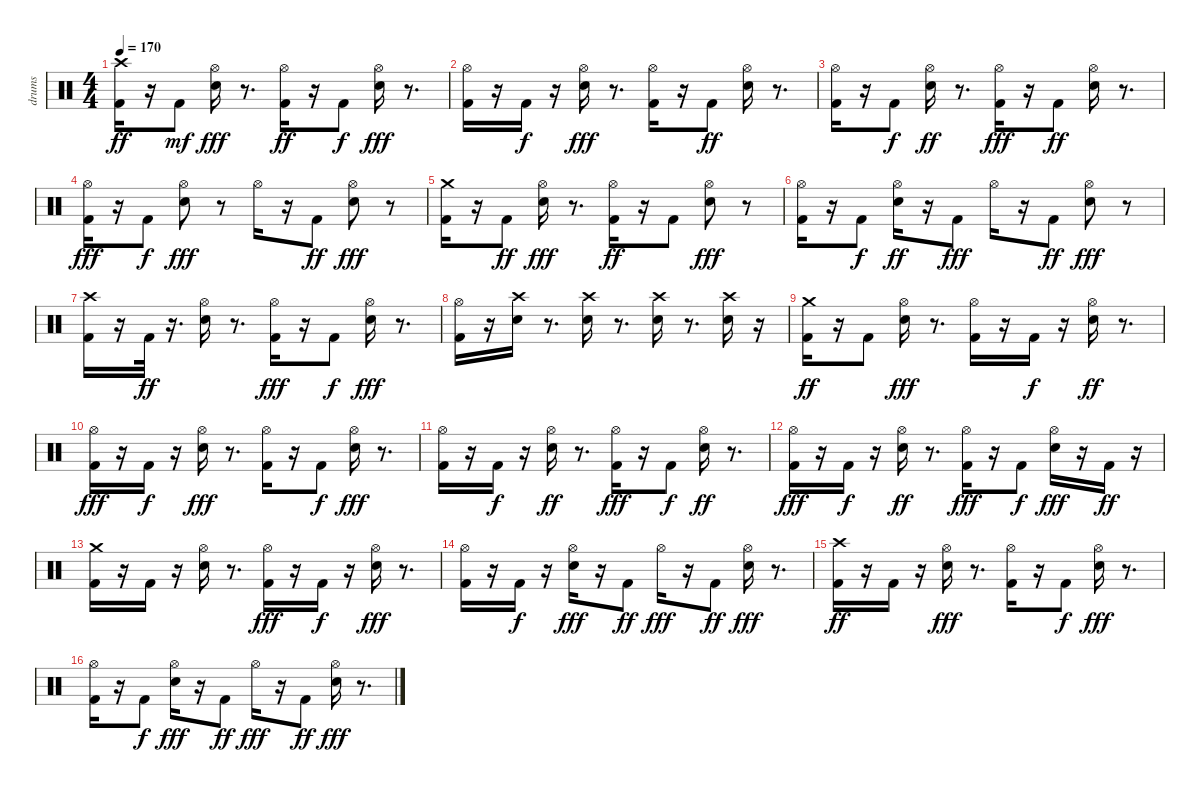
\track ("drums" "drums") {instrument percussion}
\staff {score}
\articulation defaults
\ts (4 4)
\tempo 170
\clef neutral
\ks c
("Crash high (hit)" "Kick (hit) 2").16{dy ff volume 16} r.16 "Kick (hit) 2".8{dy mf} ("Snare (hit) 2" "Hi-Hat (open)").16{dy fff} r.8{d} ("Hi-Hat (open)" "Kick (hit) 2").16{dy ff} r.16 "Kick (hit) 2".8{dy f} ("Snare (hit) 2" "Hi-Hat (open)").16{dy fff} r.8{d} |
("Kick (hit) 2" "Hi-Hat (open)").16 r.16 "Kick (hit) 2".16{dy f} r.16 ("Snare (hit) 2" "Hi-Hat (open)").16{dy fff} r.8{d} ("Kick (hit) 2" "Hi-Hat (open)").16 r.16 "Kick (hit) 2".8{dy ff} ("Hi-Hat (open)" "Snare (hit) 2").16 r.8{d} |
("Hi-Hat (open)" "Kick (hit) 2").16 r.16 "Kick (hit) 2".8{dy f} ("Hi-Hat (open)" "Snare (hit) 2").16{dy ff} r.8{d} ("Kick (hit) 2" "Hi-Hat (open)").16{dy fff} r.16 "Kick (hit) 2".8{dy ff} ("Hi-Hat (open)" "Snare (hit) 2").16 r.8{d} |
("Kick (hit) 2" "Hi-Hat (open)").16{dy fff} r.16 "Kick (hit) 2".8{dy f} ("Snare (hit) 2" "Hi-Hat (open)").8{dy fff} r.8 "Hi-Hat (open)".16 r.16 "Kick (hit) 2".8{dy ff} ("Hi-Hat (open)" "Snare (hit) 2").8{dy fff} r.8 |
("Crash medium (hit)" "Kick (hit) 2").16 r.16 "Kick (hit) 2".8{dy ff} ("Snare (hit) 2" "Hi-Hat (open)").16{dy fff} r.8{d} ("Hi-Hat (open)" "Kick (hit) 2").16{dy ff} r.16 "Kick (hit) 2".8 ("Snare (hit) 2" "Hi-Hat (open)").8{dy fff} r.8 |
("Kick (hit) 2" "Hi-Hat (open)").16 r.16 "Kick (hit) 2".8{dy f} ("Hi-Hat (open)" "Snare (hit) 2").16{dy ff} r.16 "Kick (hit) 2".8{dy fff} "Hi-Hat (open)".16 r.16 "Kick (hit) 2".8{dy ff} ("Snare (hit) 2" "Hi-Hat (open)").8{dy fff} r.8 |
("Crash high (hit)" "Kick (hit) 2").16 r.16 "Kick (hit) 2".32{dy ff} r.16{d} ("Hi-Hat (open)" "Snare (hit) 2").16 r.8{d} ("Kick (hit) 2" "Hi-Hat (open)").16{dy fff} r.16 "Kick (hit) 2".8{dy f} ("Snare (hit) 2" "Hi-Hat (open)").16{dy fff} r.8{d} |
("Kick (hit) 2" "Hi-Hat (open)").16 r.16 ("Snare (hit) 2" "Crash high (hit)").16 r.8{d} ("Snare (hit) 2" "Crash high (hit)").16 r.8{d} ("Crash high (hit)" "Snare (hit) 2").16 r.8{d} ("Crash high (hit)" "Snare (hit) 2").16 r.16 |
("Kick (hit) 2" "Crash medium (hit)").16{dy ff} r.16 "Kick (hit) 2".8 ("Hi-Hat (open)" "Snare (hit) 2").16{dy fff} r.8{d} ("Kick (hit) 2" "Hi-Hat (open)").16 r.16 "Kick (hit) 2".16{dy f} r.16 ("Hi-Hat (open)" "Snare (hit) 2").16{dy ff} r.8{d} |
("Hi-Hat (open)" "Kick (hit) 2").16{dy fff} r.16 "Kick (hit) 2".16{dy f} r.16 ("Snare (hit) 2" "Hi-Hat (open)").16{dy fff} r.8{d} ("Kick (hit) 2" "Hi-Hat (open)").16 r.16 "Kick (hit) 2".8{dy f} ("Snare (hit) 2" "Hi-Hat (open)").16{dy fff} r.8{d} |
("Kick (hit) 2" "Hi-Hat (open)").16 r.16 "Kick (hit) 2".16{dy f} r.16 ("Hi-Hat (open)" "Snare (hit) 2").16{dy ff} r.8{d} ("Kick (hit) 2" "Hi-Hat (open)").16{dy fff} r.16 "Kick (hit) 2".8{dy f} ("Hi-Hat (open)" "Snare (hit) 2").16{dy ff} r.8{d} |
("Kick (hit) 2" "Hi-Hat (open)").16{dy fff} r.16 "Kick (hit) 2".16{dy f} r.16 ("Hi-Hat (open)" "Snare (hit) 2").16{dy ff} r.8{d} ("Kick (hit) 2" "Hi-Hat (open)").16{dy fff} r.16 "Kick (hit) 2".8{dy f} ("Snare (hit) 2" "Hi-Hat (open)").16{dy fff} r.16 "Kick (hit) 2".16{dy ff} r.16 |
("Crash medium (hit)" "Kick (hit) 2").16 r.16 "Kick (hit) 2".16 r.16 ("Snare (hit) 2" "Hi-Hat (open)").16 r.8{d} ("Kick (hit) 2" "Hi-Hat (open)").16{dy fff} r.16 "Kick (hit) 2".16{dy f} r.16 ("Snare (hit) 2" "Hi-Hat (open)").16{dy fff} r.8{d} |
("Kick (hit) 2" "Hi-Hat (open)").16 r.16 "Kick (hit) 2".16{dy f} r.16 ("Snare (hit) 2" "Hi-Hat (open)").16{dy fff} r.16 "Kick (hit) 2".8{dy ff} "Hi-Hat (open)".16{dy fff} r.16 "Kick (hit) 2".8{dy ff} ("Snare (hit) 2" "Hi-Hat (open)").16{dy fff} r.8{d} |
("Crash high (hit)" "Kick (hit) 2").16{dy ff} r.16 "Kick (hit) 2".16 r.16 ("Hi-Hat (open)" "Snare (hit) 2").16{dy fff} r.8{d} ("Kick (hit) 2" "Hi-Hat (open)").16 r.16 "Kick (hit) 2".8{dy f} ("Snare (hit) 2" "Hi-Hat (open)").16{dy fff} r.8{d} |
("Kick (hit) 2" "Hi-Hat (open)").16 r.16 "Kick (hit) 2".8{dy f} ("Snare (hit) 2" "Hi-Hat (open)").16{dy fff} r.16 "Kick (hit) 2".8{dy ff} "Hi-Hat (open)".16{dy fff} r.16 "Kick (hit) 2".8{dy ff} ("Snare (hit) 2" "Hi-Hat (open)").16{dy fff} r.8{d}
